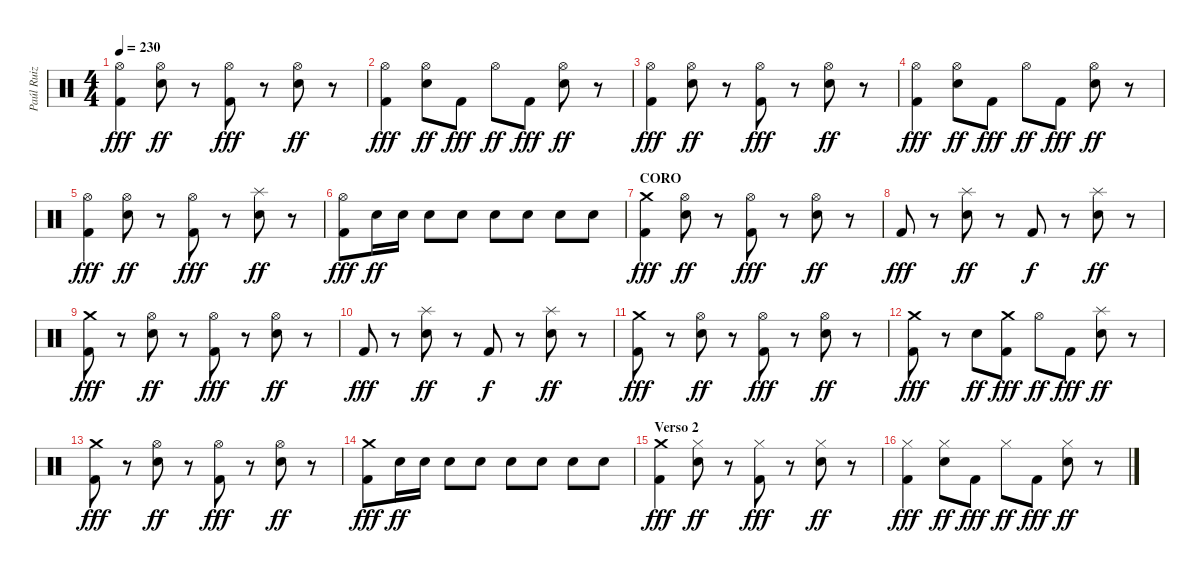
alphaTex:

\track ("Paúl Ruiz" "Paúl Ruiz") {instrument percussion}
\staff {score}
\articulation defaults
\ts (4 4)
\tempo 230
\clef neutral
\ks c
("Hi-Hat (open)" "Kick (hit) 2").4{dy fff} ("Hi-Hat (open)" "Snare (hit) 2").8{dy ff} r.8 ("Hi-Hat (open)" "Kick (hit) 2").8{dy fff} r.8 ("Hi-Hat (open)" "Snare (hit) 2").8{dy ff} r.8 |
("Hi-Hat (open)" "Kick (hit) 2").4{dy fff} ("Hi-Hat (open)" "Snare (hit) 2").8{dy ff} "Kick (hit) 2".8{dy fff} "Hi-Hat (open)".8{dy ff} "Kick (hit) 2".8{dy fff} ("Hi-Hat (open)" "Snare (hit) 2").8{dy ff} r.8 |
("Hi-Hat (open)" "Kick (hit) 2").4{dy fff} ("Hi-Hat (open)" "Snare (hit) 2").8{dy ff} r.8 ("Hi-Hat (open)" "Kick (hit) 2").8{dy fff} r.8 ("Hi-Hat (open)" "Snare (hit) 2").8{dy ff} r.8 |
("Hi-Hat (open)" "Kick (hit) 2").4{dy fff} ("Hi-Hat (open)" "Snare (hit) 2").8{dy ff} "Kick (hit) 2".8{dy fff} "Hi-Hat (open)".8{dy ff} "Kick (hit) 2".8{dy fff} ("Hi-Hat (open)" "Snare (hit) 2").8{dy ff} r.8 |
("Hi-Hat (open)" "Kick (hit) 2").4{dy fff} ("Hi-Hat (open)" "Snare (hit) 2").8{dy ff} r.8 ("Hi-Hat (open)" "Kick (hit) 2").8{dy fff} r.8 ("Splash (hit)" "Snare (hit) 2").8{dy ff} r.8 |
("Hi-Hat (open)" "Kick (hit) 2").8{dy fff} "Snare (hit) 2".16{dy ff} "Snare (hit) 2".16 "Snare (hit) 2".8 "Snare (hit) 2".8 "Snare (hit) 2".8 "Snare (hit) 2".8 "Snare (hit) 2".8 "Snare (hit) 2".8 |
\section ("" "CORO")
("Crash medium (hit)" "Kick (hit) 2").4{dy fff} ("Hi-Hat (open)" "Snare (hit) 2").8{dy ff} r.8 ("Hi-Hat (open)" "Kick (hit) 2").8{dy fff} r.8 ("Hi-Hat (open)" "Snare (hit) 2").8{dy ff} r.8 |
"Kick (hit) 2".8{dy fff} r.8 ("Splash (hit)" "Snare (hit) 2").8{dy ff} r.8 "Kick (hit) 2".8{dy f} r.8 ("Splash (hit)" "Snare (hit) 2").8{dy ff} r.8 |
("Crash medium (hit)" "Kick (hit) 2").8{dy fff} r.8 ("Hi-Hat (open)" "Snare (hit) 2").8{dy ff} r.8 ("Hi-Hat (open)" "Kick (hit) 2").8{dy fff} r.8 ("Hi-Hat (open)" "Snare (hit) 2").8{dy ff} r.8 |
"Kick (hit) 2".8{dy fff} r.8 ("Splash (hit)" "Snare (hit) 2").8{dy ff} r.8 "Kick (hit) 2".8{dy f} r.8 ("Splash (hit)" "Snare (hit) 2").8{dy ff} r.8 |
("Crash medium (hit)" "Kick (hit) 2").8{dy fff} r.8 ("Hi-Hat (open)" "Snare (hit) 2").8{dy ff} r.8 ("Hi-Hat (open)" "Kick (hit) 2").8{dy fff} r.8 ("Hi-Hat (open)" "Snare (hit) 2").8{dy ff} r.8 |
("Crash medium (hit)" "Kick (hit) 2").8{dy fff} r.8 "Snare (hit) 2".8{dy ff} ("Crash medium (hit)" "Kick (hit) 2").8{dy fff} "Hi-Hat (open)".8{dy ff} "Kick (hit) 2".8{dy fff} ("Splash (hit)" "Snare (hit) 2").8{dy ff} r.8 |
("Crash medium (hit)" "Kick (hit) 2").8{dy fff} r.8 ("Hi-Hat (open)" "Snare (hit) 2").8{dy ff} r.8 ("Hi-Hat (open)" "Kick (hit) 2").8{dy fff} r.8 ("Hi-Hat (open)" "Snare (hit) 2").8{dy ff} r.8 |
("Crash medium (hit)" "Kick (hit) 2").8{dy fff} "Snare (hit) 2".16{dy ff} "Snare (hit) 2".16 "Snare (hit) 2".8 "Snare (hit) 2".8 "Snare (hit) 2".8 "Snare (hit) 2".8 "Snare (hit) 2".8 "Snare (hit) 2".8 |
\section ("" "Verso 2")
("Crash medium (hit)" "Kick (hit) 2").4{dy fff} ("Hi-Hat (closed)" "Snare (hit) 2").8{dy ff} r.8 ("Hi-Hat (closed)" "Kick (hit) 2").8{dy fff} r.8 ("Hi-Hat (closed)" "Snare (hit) 2").8{dy ff} r.8 |
("Hi-Hat (closed)" "Kick (hit) 2").4{dy fff} ("Hi-Hat (closed)" "Snare (hit) 2").8{dy ff} "Kick (hit) 2".8{dy fff} "Hi-Hat (closed)".8{dy ff} "Kick (hit) 2".8{dy fff} ("Hi-Hat (closed)" "Snare (hit) 2").8{dy ff} r.8
